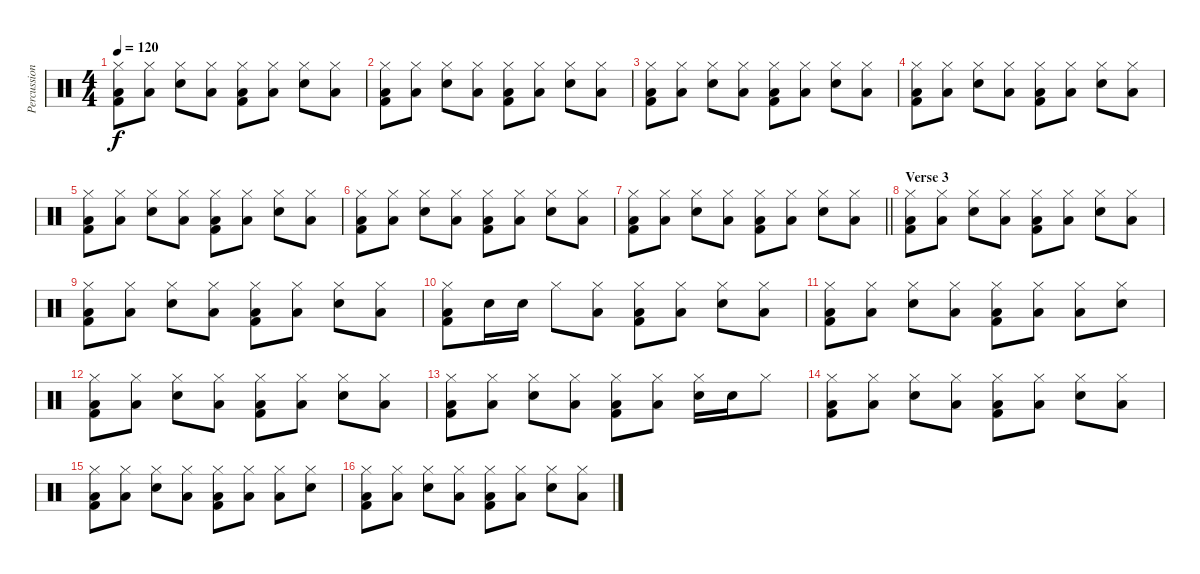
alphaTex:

\track ("Percussion" "Percussion") {instrument percussion}
\staff
\articulation defaults
\ts (4 4)
\tempo 120
\clef neutral
\ks c
("Hi-Hat (closed)" "Low Floor Tom (hit)" "Kick (hit) 2").8{dy f} ("Hi-Hat (closed)" "Low Floor Tom (hit)").8 ("Hi-Hat (closed)" "Snare (hit) 2").8 ("Hi-Hat (closed)" "Low Floor Tom (hit)").8 ("Hi-Hat (closed)" "Low Floor Tom (hit)" "Kick (hit) 2").8 ("Hi-Hat (closed)" "Low Floor Tom (hit)").8 ("Hi-Hat (closed)" "Snare (hit) 2").8 ("Hi-Hat (closed)" "Low Floor Tom (hit)").8 |
("Hi-Hat (closed)" "Low Floor Tom (hit)" "Kick (hit) 2").8 ("Hi-Hat (closed)" "Low Floor Tom (hit)").8 ("Hi-Hat (closed)" "Snare (hit) 2").8 ("Hi-Hat (closed)" "Low Floor Tom (hit)").8 ("Hi-Hat (closed)" "Low Floor Tom (hit)" "Kick (hit) 2").8 ("Hi-Hat (closed)" "Low Floor Tom (hit)").8 ("Hi-Hat (closed)" "Snare (hit) 2").8 ("Hi-Hat (closed)" "Low Floor Tom (hit)").8 |
("Hi-Hat (closed)" "Low Floor Tom (hit)" "Kick (hit) 2").8 ("Hi-Hat (closed)" "Low Floor Tom (hit)").8 ("Hi-Hat (closed)" "Snare (hit) 2").8 ("Hi-Hat (closed)" "Low Floor Tom (hit)").8 ("Hi-Hat (closed)" "Low Floor Tom (hit)" "Kick (hit) 2").8 ("Hi-Hat (closed)" "Low Floor Tom (hit)").8 ("Hi-Hat (closed)" "Snare (hit) 2").8 ("Hi-Hat (closed)" "Low Floor Tom (hit)").8 |
("Hi-Hat (closed)" "Low Floor Tom (hit)" "Kick (hit) 2").8 ("Hi-Hat (closed)" "Low Floor Tom (hit)").8 ("Hi-Hat (closed)" "Snare (hit) 2").8 ("Hi-Hat (closed)" "Low Floor Tom (hit)").8 ("Hi-Hat (closed)" "Low Floor Tom (hit)" "Kick (hit) 2").8 ("Hi-Hat (closed)" "Low Floor Tom (hit)").8 ("Hi-Hat (closed)" "Snare (hit) 2").8 ("Hi-Hat (closed)" "Low Floor Tom (hit)").8 |
("Hi-Hat (closed)" "Low Floor Tom (hit)" "Kick (hit) 2").8 ("Hi-Hat (closed)" "Low Floor Tom (hit)").8 ("Hi-Hat (closed)" "Snare (hit) 2").8 ("Hi-Hat (closed)" "Low Floor Tom (hit)").8 ("Hi-Hat (closed)" "Low Floor Tom (hit)" "Kick (hit) 2").8 ("Hi-Hat (closed)" "Low Floor Tom (hit)").8 ("Hi-Hat (closed)" "Snare (hit) 2").8 ("Hi-Hat (closed)" "Low Floor Tom (hit)").8 |
("Hi-Hat (closed)" "Low Floor Tom (hit)" "Kick (hit) 2").8 ("Hi-Hat (closed)" "Low Floor Tom (hit)").8 ("Hi-Hat (closed)" "Snare (hit) 2").8 ("Hi-Hat (closed)" "Low Floor Tom (hit)").8 ("Hi-Hat (closed)" "Low Floor Tom (hit)" "Kick (hit) 2").8 ("Hi-Hat (closed)" "Low Floor Tom (hit)").8 ("Hi-Hat (closed)" "Snare (hit) 2").8 ("Hi-Hat (closed)" "Low Floor Tom (hit)").8 |
\barLineRight lightlight
("Hi-Hat (closed)" "Low Floor Tom (hit)" "Kick (hit) 2").8 ("Hi-Hat (closed)" "Low Floor Tom (hit)").8 ("Hi-Hat (closed)" "Snare (hit) 2").8 ("Hi-Hat (closed)" "Low Floor Tom (hit)").8 ("Hi-Hat (closed)" "Low Floor Tom (hit)" "Kick (hit) 2").8 ("Hi-Hat (closed)" "Low Floor Tom (hit)").8 ("Hi-Hat (closed)" "Snare (hit) 2").8 ("Hi-Hat (closed)" "Low Floor Tom (hit)").8 |
\section ("" "Verse 3")
("Hi-Hat (closed)" "Low Floor Tom (hit)" "Kick (hit) 2").8 ("Hi-Hat (closed)" "Low Floor Tom (hit)").8 ("Hi-Hat (closed)" "Snare (hit) 2").8 ("Hi-Hat (closed)" "Low Floor Tom (hit)").8 ("Hi-Hat (closed)" "Low Floor Tom (hit)" "Kick (hit) 2").8 ("Hi-Hat (closed)" "Low Floor Tom (hit)").8 ("Hi-Hat (closed)" "Snare (hit) 2").8 ("Hi-Hat (closed)" "Low Floor Tom (hit)").8 |
("Hi-Hat (closed)" "Low Floor Tom (hit)" "Kick (hit) 2").8 ("Hi-Hat (closed)" "Low Floor Tom (hit)").8 ("Hi-Hat (closed)" "Snare (hit) 2").8 ("Hi-Hat (closed)" "Low Floor Tom (hit)").8 ("Hi-Hat (closed)" "Low Floor Tom (hit)" "Kick (hit) 2").8 ("Hi-Hat (closed)" "Low Floor Tom (hit)").8 ("Hi-Hat (closed)" "Snare (hit) 2").8 ("Hi-Hat (closed)" "Low Floor Tom (hit)").8 |
("Hi-Hat (closed)" "Low Floor Tom (hit)" "Kick (hit) 2").8 "Snare (hit) 2".16 "Snare (hit) 2".16 "Hi-Hat (closed)".8 ("Hi-Hat (closed)" "Low Floor Tom (hit)").8 ("Hi-Hat (closed)" "Low Floor Tom (hit)" "Kick (hit) 2").8 ("Hi-Hat (closed)" "Low Floor Tom (hit)").8 ("Hi-Hat (closed)" "Snare (hit) 2").8 ("Hi-Hat (closed)" "Low Floor Tom (hit)").8 |
("Hi-Hat (closed)" "Low Floor Tom (hit)" "Kick (hit) 2").8 ("Hi-Hat (closed)" "Low Floor Tom (hit)").8 ("Hi-Hat (closed)" "Snare (hit) 2").8 ("Hi-Hat (closed)" "Low Floor Tom (hit)").8 ("Hi-Hat (closed)" "Low Floor Tom (hit)" "Kick (hit) 2").8 ("Hi-Hat (closed)" "Low Floor Tom (hit)").8 ("Hi-Hat (closed)" "Low Floor Tom (hit)").8 ("Hi-Hat (closed)" "Snare (hit) 2").8 |
("Hi-Hat (closed)" "Low Floor Tom (hit)" "Kick (hit) 2").8 ("Hi-Hat (closed)" "Low Floor Tom (hit)").8 ("Hi-Hat (closed)" "Snare (hit) 2").8 ("Hi-Hat (closed)" "Low Floor Tom (hit)").8 ("Hi-Hat (closed)" "Low Floor Tom (hit)" "Kick (hit) 2").8 ("Hi-Hat (closed)" "Low Floor Tom (hit)").8 ("Hi-Hat (closed)" "Snare (hit) 2").8 ("Hi-Hat (closed)" "Low Floor Tom (hit)").8 |
("Hi-Hat (closed)" "Low Floor Tom (hit)" "Kick (hit) 2").8 ("Hi-Hat (closed)" "Low Floor Tom (hit)").8 ("Hi-Hat (closed)" "Snare (hit) 2").8 ("Hi-Hat (closed)" "Low Floor Tom (hit)").8 ("Hi-Hat (closed)" "Low Floor Tom (hit)" "Kick (hit) 2").8 ("Hi-Hat (closed)" "Low Floor Tom (hit)").8 ("Hi-Hat (closed)" "Snare (hit) 2").16 "Snare (hit) 2".16 "Hi-Hat (closed)".8 |
("Hi-Hat (closed)" "Low Floor Tom (hit)" "Kick (hit) 2").8 ("Hi-Hat (closed)" "Low Floor Tom (hit)").8 ("Hi-Hat (closed)" "Snare (hit) 2").8 ("Hi-Hat (closed)" "Low Floor Tom (hit)").8 ("Hi-Hat (closed)" "Low Floor Tom (hit)" "Kick (hit) 2").8 ("Hi-Hat (closed)" "Low Floor Tom (hit)").8 ("Hi-Hat (closed)" "Snare (hit) 2").8 ("Hi-Hat (closed)" "Low Floor Tom (hit)").8 |
("Hi-Hat (closed)" "Low Floor Tom (hit)" "Kick (hit) 2").8 ("Hi-Hat (closed)" "Low Floor Tom (hit)").8 ("Hi-Hat (closed)" "Snare (hit) 2").8 ("Hi-Hat (closed)" "Low Floor Tom (hit)").8 ("Hi-Hat (closed)" "Low Floor Tom (hit)" "Kick (hit) 2").8 ("Hi-Hat (closed)" "Low Floor Tom (hit)").8 ("Hi-Hat (closed)" "Low Floor Tom (hit)").8 ("Hi-Hat (closed)" "Snare (hit) 2").8 |
("Hi-Hat (closed)" "Low Floor Tom (hit)" "Kick (hit) 2").8 ("Hi-Hat (closed)" "Low Floor Tom (hit)").8 ("Hi-Hat (closed)" "Snare (hit) 2").8 ("Hi-Hat (closed)" "Low Floor Tom (hit)").8 ("Hi-Hat (closed)" "Low Floor Tom (hit)" "Kick (hit) 2").8 ("Hi-Hat (closed)" "Low Floor Tom (hit)").8 ("Hi-Hat (closed)" "Snare (hit) 2").8 ("Hi-Hat (closed)" "Low Floor Tom (hit)").8
